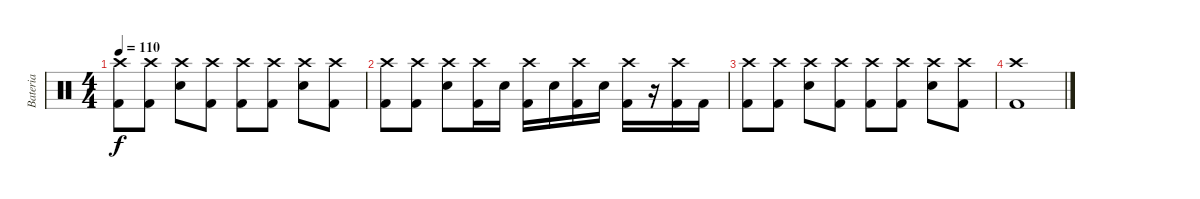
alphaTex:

\track ("Bateria" "Bateria") {instrument percussion}
\staff {score}
\articulation defaults
\ts (4 4)
\tempo 110
\clef neutral
\ks c
("Crash high (hit)" "Kick (hit) 2").8{dy f} ("Crash high (hit)" "Kick (hit) 2").8 ("Crash high (hit)" "Snare (hit) 2").8 ("Crash high (hit)" "Kick (hit) 2").8 ("Crash high (hit)" "Kick (hit) 2").8 ("Crash high (hit)" "Kick (hit) 2").8 ("Crash high (hit)" "Snare (hit) 2").8 ("Crash high (hit)" "Kick (hit) 2").8 |
("Crash high (hit)" "Kick (hit) 2").8 ("Crash high (hit)" "Kick (hit) 2").8 ("Crash high (hit)" "Snare (hit) 2").8 ("Crash high (hit)" "Kick (hit) 2").16 "Snare (hit) 2".16 ("Crash high (hit)" "Kick (hit) 2").16 "Snare (hit) 2".16 ("Crash high (hit)" "Kick (hit) 2").16 "Snare (hit) 2".16 ("Crash high (hit)" "Kick (hit) 2").16 r.16 ("Crash high (hit)" "Kick (hit) 2").16 "Kick (hit) 2".16 |
("Crash high (hit)" "Kick (hit) 2").8 ("Crash high (hit)" "Kick (hit) 2").8 ("Crash high (hit)" "Snare (hit) 2").8 ("Crash high (hit)" "Kick (hit) 2").8 ("Crash high (hit)" "Kick (hit) 2").8 ("Crash high (hit)" "Kick (hit) 2").8 ("Crash high (hit)" "Snare (hit) 2").8 ("Crash high (hit)" "Kick (hit) 2").8 |
("Crash high (hit)" "Kick (hit) 2").1
